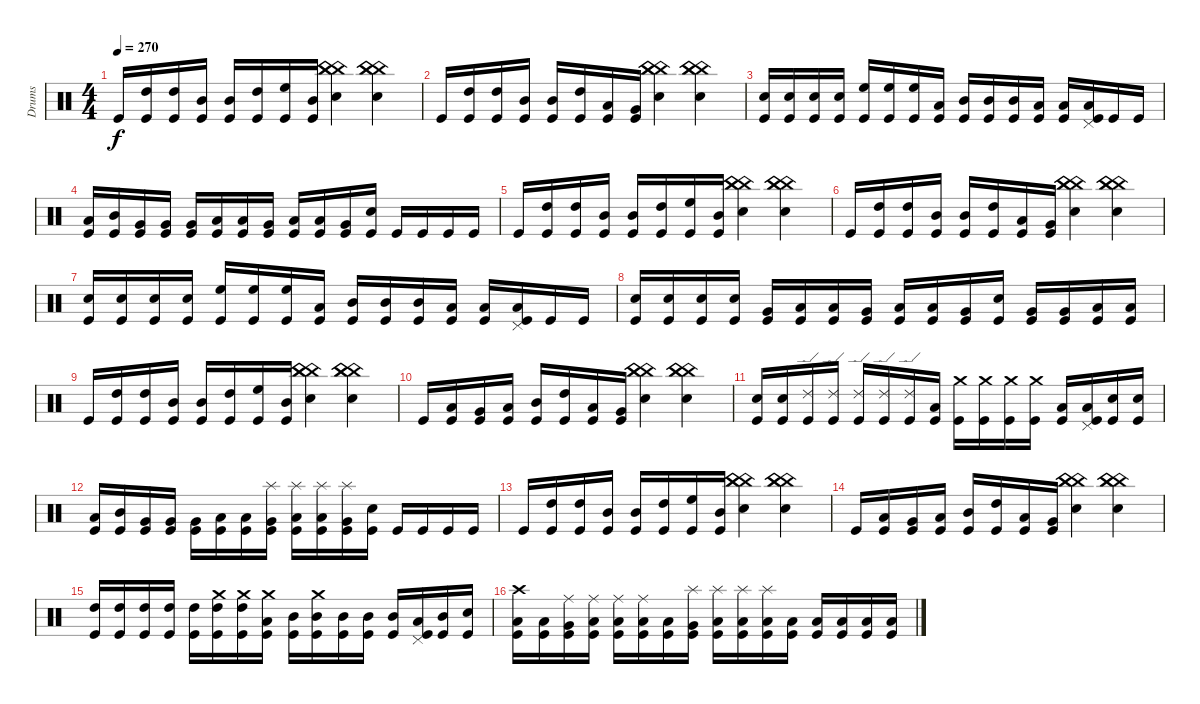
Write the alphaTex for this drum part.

\track ("Drums" "Drums") {instrument percussion}
\staff {score}
\articulation defaults
\ts (4 4)
\tempo 270
\clef neutral
\ks c "Kick (hit)".16{dy f}
("High Tom (hit)" "Kick (hit)").16 ("High Tom (hit)" "Kick (hit)").16 ("Mid Tom (hit)" "Kick (hit)").16 ("Mid Tom (hit)" "Kick (hit)").16 ("High Tom (hit)" "Kick (hit)").16 ("High Floor Tom (hit)" "Kick (hit)").16 ("Mid Tom (hit)" "Kick (hit)").16 ("China (hit)" "China (hit)" "China (hit)" "Electric Snare (hit)").4 ("China (hit)" "China (hit)" "China (hit)" "Electric Snare (hit)").4 |
"Kick (hit)".16 ("High Tom (hit)" "Kick (hit)").16 ("High Tom (hit)" "Kick (hit)").16 ("Mid Tom (hit)" "Kick (hit)").16 ("Mid Tom (hit)" "Kick (hit)").16 ("High Tom (hit)" "Kick (hit)").16 ("Low Tom (hit)" "Kick (hit)").16 ("Very Low Tom (hit)" "Kick (hit)").16 ("China (hit)" "China (hit)" "China (hit)" "Electric Snare (hit)").4 ("China (hit)" "China (hit)" "China (hit)" "Electric Snare (hit)").4 |
("Electric Snare (hit)" "Kick (hit)").16 ("Electric Snare (hit)" "Kick (hit)").16 ("Electric Snare (hit)" "Kick (hit)").16 ("Electric Snare (hit)" "Kick (hit)").16 ("High Floor Tom (hit)" "Kick (hit)").16 ("High Floor Tom (hit)" "Kick (hit)").16 ("High Floor Tom (hit)" "Kick (hit)").16 ("Low Tom (hit)" "Kick (hit)").16 ("Mid Tom (hit)" "Kick (hit)").16 ("Mid Tom (hit)" "Kick (hit)").16 ("Mid Tom (hit)" "Kick (hit)").16 ("Low Tom (hit)" "Kick (hit)").16 ("Low Tom (hit)" "Kick (hit)").16 ("Pedal Hi-Hat (hit)" "Low Tom (hit)" "Kick (hit)").16 "Kick (hit)".16 "Kick (hit)".16 |
("Low Tom (hit)" "Kick (hit)").16 ("Mid Tom (hit)" "Kick (hit)").16 ("Very Low Tom (hit)" "Kick (hit)").16 ("Very Low Tom (hit)" "Kick (hit)").16 ("Very Low Tom (hit)" "Kick (hit)").16 ("Low Tom (hit)" "Kick (hit)").16 ("Low Floor Tom (hit)" "Kick (hit)").16 ("Very Low Tom (hit)" "Kick (hit)").16 ("Low Floor Tom (hit)" "Kick (hit)").16 ("Low Floor Tom (hit)" "Kick (hit)").16 ("Very Low Tom (hit)" "Kick (hit)").16 ("Electric Snare (hit)" "Kick (hit)").16 "Kick (hit)".16 "Kick (hit)".16 "Kick (hit)".16 "Kick (hit)".16 |
"Kick (hit)".16 ("High Tom (hit)" "Kick (hit)").16 ("High Tom (hit)" "Kick (hit)").16 ("Mid Tom (hit)" "Kick (hit)").16 ("Mid Tom (hit)" "Kick (hit)").16 ("High Tom (hit)" "Kick (hit)").16 ("High Floor Tom (hit)" "Kick (hit)").16 ("Mid Tom (hit)" "Kick (hit)").16 ("China (hit)" "China (hit)" "China (hit)" "Electric Snare (hit)").4 ("China (hit)" "China (hit)" "China (hit)" "Electric Snare (hit)").4 |
"Kick (hit)".16 ("High Tom (hit)" "Kick (hit)").16 ("High Tom (hit)" "Kick (hit)").16 ("Mid Tom (hit)" "Kick (hit)").16 ("Mid Tom (hit)" "Kick (hit)").16 ("High Tom (hit)" "Kick (hit)").16 ("Low Tom (hit)" "Kick (hit)").16 ("Very Low Tom (hit)" "Kick (hit)").16 ("China (hit)" "China (hit)" "China (hit)" "Electric Snare (hit)").4 ("China (hit)" "China (hit)" "China (hit)" "Electric Snare (hit)").4 |
("Electric Snare (hit)" "Kick (hit)").16 ("Electric Snare (hit)" "Kick (hit)").16 ("Electric Snare (hit)" "Kick (hit)").16 ("Electric Snare (hit)" "Kick (hit)").16 ("High Floor Tom (hit)" "Kick (hit)").16 ("High Floor Tom (hit)" "Kick (hit)").16 ("High Floor Tom (hit)" "Kick (hit)").16 ("Low Tom (hit)" "Kick (hit)").16 ("Mid Tom (hit)" "Kick (hit)").16 ("Mid Tom (hit)" "Kick (hit)").16 ("Mid Tom (hit)" "Kick (hit)").16 ("Low Tom (hit)" "Kick (hit)").16 ("Low Tom (hit)" "Kick (hit)").16 ("Pedal Hi-Hat (hit)" "Low Tom (hit)" "Kick (hit)").16 "Kick (hit)".16 "Kick (hit)".16 |
("Electric Snare (hit)" "Kick (hit)").16 ("Electric Snare (hit)" "Kick (hit)").16 ("Electric Snare (hit)" "Kick (hit)").16 ("Electric Snare (hit)" "Kick (hit)").16 ("Very Low Tom (hit)" "Kick (hit)").16 ("Low Tom (hit)" "Kick (hit)").16 ("Low Floor Tom (hit)" "Kick (hit)").16 ("Very Low Tom (hit)" "Kick (hit)").16 ("Low Floor Tom (hit)" "Kick (hit)").16 ("Low Floor Tom (hit)" "Kick (hit)").16 ("Very Low Tom (hit)" "Kick (hit)").16 ("Electric Snare (hit)" "Kick (hit)").16 ("Very Low Tom (hit)" "Kick (hit)").16 ("Very Low Tom (hit)" "Kick (hit)").16 ("Low Floor Tom (hit)" "Kick (hit)").16 ("Low Floor Tom (hit)" "Kick (hit)").16 |
"Kick (hit)".16 ("High Tom (hit)" "Kick (hit)").16 ("High Tom (hit)" "Kick (hit)").16 ("Mid Tom (hit)" "Kick (hit)").16 ("Mid Tom (hit)" "Kick (hit)").16 ("High Tom (hit)" "Kick (hit)").16 ("High Floor Tom (hit)" "Kick (hit)").16 ("Mid Tom (hit)" "Kick (hit)").16 ("China (hit)" "China (hit)" "China (hit)" "Electric Snare (hit)").4 ("China (hit)" "China (hit)" "China (hit)" "Electric Snare (hit)").4 |
"Kick (hit)".16 ("Low Floor Tom (hit)" "Kick (hit)").16 ("Very Low Tom (hit)" "Kick (hit)").16 ("Low Tom (hit)" "Kick (hit)").16 ("Mid Tom (hit)" "Kick (hit)").16 ("High Tom (hit)" "Kick (hit)").16 ("Low Tom (hit)" "Kick (hit)").16 ("Very Low Tom (hit)" "Kick (hit)").16 ("China (hit)" "China (hit)" "China (hit)" "Electric Snare (hit)").4 ("China (hit)" "China (hit)" "China (hit)" "Electric Snare (hit)").4 |
("Electric Snare (hit)" "Kick (hit)").16 ("Electric Snare (hit)" "Kick (hit)").16 ("Ride (edge) 2" "Kick (hit)").16 ("Ride (edge) 2" "Kick (hit)").16 ("Ride (edge) 2" "Kick (hit)").16 ("Ride (edge) 2" "Kick (hit)").16 ("Ride (edge) 2" "Kick (hit)").16 ("Low Tom (hit)" "Kick (hit)").16 ("Crash medium (hit)" "Kick (hit)").16 ("Crash medium (hit)" "Kick (hit)").16 ("Crash medium (hit)" "Kick (hit)").16 ("Crash medium (hit)" "Kick (hit)").16 ("Low Tom (hit)" "Kick (hit)").16 ("Pedal Hi-Hat (hit)" "Low Tom (hit)" "Kick (hit)").16 ("Electric Snare (hit)" "Kick (hit)").16 ("Electric Snare (hit)" "Kick (hit)").16 |
("Low Tom (hit)" "Kick (hit)").16 ("Mid Tom (hit)" "Kick (hit)").16 ("Very Low Tom (hit)" "Kick (hit)").16 ("Very Low Tom (hit)" "Kick (hit)").16 ("Very Low Tom (hit)" "Kick (hit)").16 ("Low Tom (hit)" "Kick (hit)").16 ("Low Floor Tom (hit)" "Kick (hit)").16 ("Splash (hit)" "Very Low Tom (hit)" "Kick (hit)").16 ("Splash (hit)" "Low Floor Tom (hit)" "Kick (hit)").16 ("Splash (hit)" "Low Floor Tom (hit)" "Kick (hit)").16 ("Splash (hit)" "Very Low Tom (hit)" "Kick (hit)").16 ("Electric Snare (hit)" "Kick (hit)").16 "Kick (hit)".16 "Kick (hit)".16 "Kick (hit)".16 "Kick (hit)".16 |
"Kick (hit)".16 ("High Tom (hit)" "Kick (hit)").16 ("High Tom (hit)" "Kick (hit)").16 ("Mid Tom (hit)" "Kick (hit)").16 ("Mid Tom (hit)" "Kick (hit)").16 ("High Tom (hit)" "Kick (hit)").16 ("High Floor Tom (hit)" "Kick (hit)").16 ("Mid Tom (hit)" "Kick (hit)").16 ("China (hit)" "China (hit)" "China (hit)" "Electric Snare (hit)").4 ("China (hit)" "China (hit)" "China (hit)" "Electric Snare (hit)").4 |
"Kick (hit)".16 ("Low Tom (hit)" "Kick (hit)").16 ("Very Low Tom (hit)" "Kick (hit)").16 ("Low Floor Tom (hit)" "Kick (hit)").16 ("Mid Tom (hit)" "Kick (hit)").16 ("High Tom (hit)" "Kick (hit)").16 ("Low Tom (hit)" "Kick (hit)").16 ("Very Low Tom (hit)" "Kick (hit)").16 ("China (hit)" "China (hit)" "China (hit)" "Electric Snare (hit)").4 ("China (hit)" "China (hit)" "China (hit)" "Electric Snare (hit)").4 |
("High Tom (hit)" "Kick (hit)").16 ("High Tom (hit)" "Kick (hit)").16 ("High Tom (hit)" "Kick (hit)").16 ("High Tom (hit)" "Kick (hit)").16 ("High Tom (hit)" "Kick (hit)").16 ("Crash medium (hit)" "High Tom (hit)" "Kick (hit)").16 ("Crash medium (hit)" "High Tom (hit)" "Kick (hit)").16 ("Crash medium (hit)" "Low Tom (hit)" "Kick (hit)").16 ("Mid Tom (hit)" "Kick (hit)").16 ("Crash medium (hit)" "Mid Tom (hit)" "Kick (hit)").16 ("Mid Tom (hit)" "Kick (hit)").16 ("Mid Tom (hit)" "Kick (hit)").16 ("Mid Tom (hit)" "Kick (hit)").16 ("Pedal Hi-Hat (hit)" "Low Tom (hit)" "Kick (hit)").16 ("Mid Tom (hit)" "Kick (hit)").16 ("Electric Snare (hit)" "Kick (hit)").16 |
("Crash high (hit)" "Low Tom (hit)" "Kick (hit)").16 ("Low Tom (hit)" "Kick (hit)").16 ("Ride (middle)" "Very Low Tom (hit)" "Kick (hit)").16 ("Ride (middle)" "Low Tom (hit)" "Kick (hit)").16 ("Ride (middle)" "Low Tom (hit)" "Kick (hit)").16 ("Ride (middle)" "Low Tom (hit)" "Kick (hit)").16 ("Low Floor Tom (hit)" "Kick (hit)").16 ("Splash (hit)" "Very Low Tom (hit)" "Kick (hit)").16 ("Splash (hit)" "Low Floor Tom (hit)" "Kick (hit)").16 ("Splash (hit)" "Low Floor Tom (hit)" "Kick (hit)").16 ("Splash (hit)" "Low Floor Tom (hit)" "Kick (hit)").16 ("Low Floor Tom (hit)" "Kick (hit)").16 ("Low Floor Tom (hit)" "Kick (hit)").16 ("Low Floor Tom (hit)" "Kick (hit)").16 ("Low Floor Tom (hit)" "Kick (hit)").16 ("Low Floor Tom (hit)" "Kick (hit)").16
